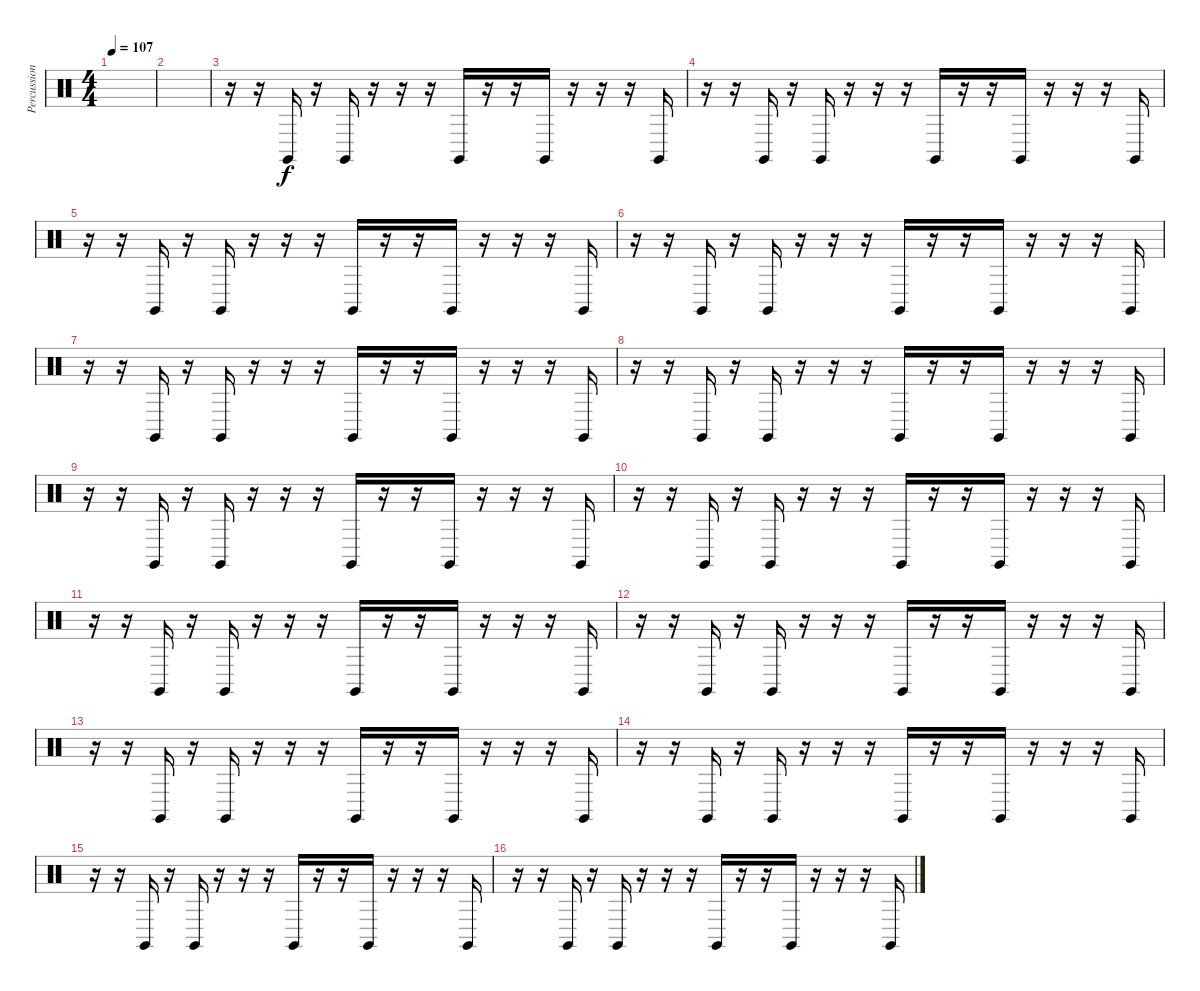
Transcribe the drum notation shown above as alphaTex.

\track ("Percussioni" "Percussion") {instrument percussion}
\staff {score}
\articulation defaults
\ts (4 4)
\tempo 107
\clef neutral
\ks c
|
|
r.16 r.16 "Claves (hit)".16 r.16 "Claves (hit)".16 r.16 r.16 r.16 "Claves (hit)".16 r.16 r.16 "Claves (hit)".16 r.16 r.16 r.16 "Claves (hit)".16 |
r.16 r.16 "Claves (hit)".16 r.16 "Claves (hit)".16 r.16 r.16 r.16 "Claves (hit)".16 r.16 r.16 "Claves (hit)".16 r.16 r.16 r.16 "Claves (hit)".16 |
r.16 r.16 "Claves (hit)".16 r.16 "Claves (hit)".16 r.16 r.16 r.16 "Claves (hit)".16 r.16 r.16 "Claves (hit)".16 r.16 r.16 r.16 "Claves (hit)".16 |
r.16 r.16 "Claves (hit)".16 r.16 "Claves (hit)".16 r.16 r.16 r.16 "Claves (hit)".16 r.16 r.16 "Claves (hit)".16 r.16 r.16 r.16 "Claves (hit)".16 |
r.16 r.16 "Claves (hit)".16 r.16 "Claves (hit)".16 r.16 r.16 r.16 "Claves (hit)".16 r.16 r.16 "Claves (hit)".16 r.16 r.16 r.16 "Claves (hit)".16 |
r.16 r.16 "Claves (hit)".16 r.16 "Claves (hit)".16 r.16 r.16 r.16 "Claves (hit)".16 r.16 r.16 "Claves (hit)".16 r.16 r.16 r.16 "Claves (hit)".16 |
r.16 r.16 "Claves (hit)".16 r.16 "Claves (hit)".16 r.16 r.16 r.16 "Claves (hit)".16 r.16 r.16 "Claves (hit)".16 r.16 r.16 r.16 "Claves (hit)".16 |
r.16 r.16 "Claves (hit)".16 r.16 "Claves (hit)".16 r.16 r.16 r.16 "Claves (hit)".16 r.16 r.16 "Claves (hit)".16 r.16 r.16 r.16 "Claves (hit)".16 |
r.16 r.16 "Claves (hit)".16 r.16 "Claves (hit)".16 r.16 r.16 r.16 "Claves (hit)".16 r.16 r.16 "Claves (hit)".16 r.16 r.16 r.16 "Claves (hit)".16 |
r.16 r.16 "Claves (hit)".16 r.16 "Claves (hit)".16 r.16 r.16 r.16 "Claves (hit)".16 r.16 r.16 "Claves (hit)".16 r.16 r.16 r.16 "Claves (hit)".16 |
r.16 r.16 "Claves (hit)".16 r.16 "Claves (hit)".16 r.16 r.16 r.16 "Claves (hit)".16 r.16 r.16 "Claves (hit)".16 r.16 r.16 r.16 "Claves (hit)".16 |
r.16 r.16 "Claves (hit)".16 r.16 "Claves (hit)".16 r.16 r.16 r.16 "Claves (hit)".16 r.16 r.16 "Claves (hit)".16 r.16 r.16 r.16 "Claves (hit)".16 |
r.16 r.16 "Claves (hit)".16 r.16 "Claves (hit)".16 r.16 r.16 r.16 "Claves (hit)".16 r.16 r.16 "Claves (hit)".16 r.16 r.16 r.16 "Claves (hit)".16 |
r.16 r.16 "Claves (hit)".16 r.16 "Claves (hit)".16 r.16 r.16 r.16 "Claves (hit)".16 r.16 r.16 "Claves (hit)".16 r.16 r.16 r.16 "Claves (hit)".16
